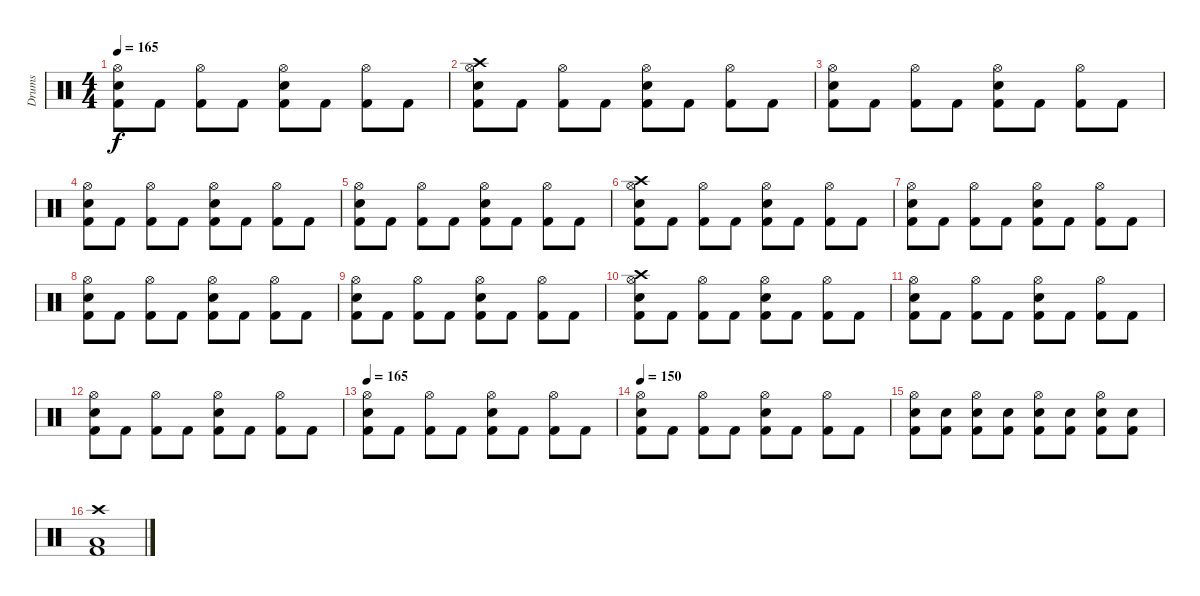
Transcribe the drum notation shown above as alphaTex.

\track ("Drums" "Drums") {instrument percussion}
\staff {score}
\articulation defaults
\ts (4 4)
\tempo 165
\clef neutral
\ks c
("Hi-Hat (open)" "Snare (hit) 2" "Kick (hit) 2").8{dy f} "Kick (hit) 2".8 ("Hi-Hat (open)" "Kick (hit) 2").8 "Kick (hit) 2".8 ("Hi-Hat (open)" "Snare (hit) 2" "Kick (hit) 2").8 "Kick (hit) 2".8 ("Hi-Hat (open)" "Kick (hit) 2").8 "Kick (hit) 2".8 |
("Crash high (hit)" "Hi-Hat (open)" "Snare (hit) 2" "Kick (hit) 2").8 "Kick (hit) 2".8 ("Hi-Hat (open)" "Kick (hit) 2").8 "Kick (hit) 2".8 ("Hi-Hat (open)" "Snare (hit) 2" "Kick (hit) 2").8 "Kick (hit) 2".8 ("Hi-Hat (open)" "Kick (hit) 2").8 "Kick (hit) 2".8 |
("Hi-Hat (open)" "Snare (hit) 2" "Kick (hit) 2").8 "Kick (hit) 2".8 ("Hi-Hat (open)" "Kick (hit) 2").8 "Kick (hit) 2".8 ("Hi-Hat (open)" "Snare (hit) 2" "Kick (hit) 2").8 "Kick (hit) 2".8 ("Hi-Hat (open)" "Kick (hit) 2").8 "Kick (hit) 2".8 |
("Hi-Hat (open)" "Snare (hit) 2" "Kick (hit) 2").8 "Kick (hit) 2".8 ("Hi-Hat (open)" "Kick (hit) 2").8 "Kick (hit) 2".8 ("Hi-Hat (open)" "Snare (hit) 2" "Kick (hit) 2").8 "Kick (hit) 2".8 ("Hi-Hat (open)" "Kick (hit) 2").8 "Kick (hit) 2".8 |
("Hi-Hat (open)" "Snare (hit) 2" "Kick (hit) 2").8 "Kick (hit) 2".8 ("Hi-Hat (open)" "Kick (hit) 2").8 "Kick (hit) 2".8 ("Hi-Hat (open)" "Snare (hit) 2" "Kick (hit) 2").8 "Kick (hit) 2".8 ("Hi-Hat (open)" "Kick (hit) 2").8 "Kick (hit) 2".8 |
("Crash high (hit)" "Hi-Hat (open)" "Snare (hit) 2" "Kick (hit) 2").8 "Kick (hit) 2".8 ("Hi-Hat (open)" "Kick (hit) 2").8 "Kick (hit) 2".8 ("Hi-Hat (open)" "Snare (hit) 2" "Kick (hit) 2").8 "Kick (hit) 2".8 ("Hi-Hat (open)" "Kick (hit) 2").8 "Kick (hit) 2".8 |
("Hi-Hat (open)" "Snare (hit) 2" "Kick (hit) 2").8 "Kick (hit) 2".8 ("Hi-Hat (open)" "Kick (hit) 2").8 "Kick (hit) 2".8 ("Hi-Hat (open)" "Snare (hit) 2" "Kick (hit) 2").8 "Kick (hit) 2".8 ("Hi-Hat (open)" "Kick (hit) 2").8 "Kick (hit) 2".8 |
("Hi-Hat (open)" "Snare (hit) 2" "Kick (hit) 2").8 "Kick (hit) 2".8 ("Hi-Hat (open)" "Kick (hit) 2").8 "Kick (hit) 2".8 ("Hi-Hat (open)" "Snare (hit) 2" "Kick (hit) 2").8 "Kick (hit) 2".8 ("Hi-Hat (open)" "Kick (hit) 2").8 "Kick (hit) 2".8 |
("Hi-Hat (open)" "Snare (hit) 2" "Kick (hit) 2").8 "Kick (hit) 2".8 ("Hi-Hat (open)" "Kick (hit) 2").8 "Kick (hit) 2".8 ("Hi-Hat (open)" "Snare (hit) 2" "Kick (hit) 2").8 "Kick (hit) 2".8 ("Hi-Hat (open)" "Kick (hit) 2").8 "Kick (hit) 2".8 |
("Crash high (hit)" "Hi-Hat (open)" "Snare (hit) 2" "Kick (hit) 2").8 "Kick (hit) 2".8 ("Hi-Hat (open)" "Kick (hit) 2").8 "Kick (hit) 2".8 ("Hi-Hat (open)" "Snare (hit) 2" "Kick (hit) 2").8 "Kick (hit) 2".8 ("Hi-Hat (open)" "Kick (hit) 2").8 "Kick (hit) 2".8 |
("Hi-Hat (open)" "Snare (hit) 2" "Kick (hit) 2").8 "Kick (hit) 2".8 ("Hi-Hat (open)" "Kick (hit) 2").8 "Kick (hit) 2".8 ("Hi-Hat (open)" "Snare (hit) 2" "Kick (hit) 2").8 "Kick (hit) 2".8 ("Hi-Hat (open)" "Kick (hit) 2").8 "Kick (hit) 2".8 |
("Hi-Hat (open)" "Snare (hit) 2" "Kick (hit) 2").8 "Kick (hit) 2".8 ("Hi-Hat (open)" "Kick (hit) 2").8 "Kick (hit) 2".8 ("Hi-Hat (open)" "Snare (hit) 2" "Kick (hit) 2").8 "Kick (hit) 2".8 ("Hi-Hat (open)" "Kick (hit) 2").8 "Kick (hit) 2".8 |
\tempo 165
("Hi-Hat (open)" "Snare (hit) 2" "Kick (hit) 2").8 "Kick (hit) 2".8 ("Hi-Hat (open)" "Kick (hit) 2").8 "Kick (hit) 2".8 ("Hi-Hat (open)" "Snare (hit) 2" "Kick (hit) 2").8 "Kick (hit) 2".8 ("Hi-Hat (open)" "Kick (hit) 2").8 "Kick (hit) 2".8 |
\tempo 150
("Hi-Hat (open)" "Snare (hit) 2" "Kick (hit) 2").8 "Kick (hit) 2".8 ("Hi-Hat (open)" "Kick (hit) 2").8 "Kick (hit) 2".8 ("Hi-Hat (open)" "Snare (hit) 2" "Kick (hit) 2").8 "Kick (hit) 2".8 ("Hi-Hat (open)" "Kick (hit) 2").8 "Kick (hit) 2".8 |
("Hi-Hat (open)" "Snare (hit) 2" "Kick (hit) 2").8 ("Snare (hit) 2" "Kick (hit) 2").8 ("Hi-Hat (open)" "Snare (hit) 2" "Kick (hit) 2").8 ("Snare (hit) 2" "Kick (hit) 2").8 ("Hi-Hat (open)" "Snare (hit) 2" "Kick (hit) 2").8 ("Snare (hit) 2" "Kick (hit) 2").8 ("Hi-Hat (open)" "Snare (hit) 2" "Kick (hit) 2").8 ("Snare (hit) 2" "Kick (hit) 2").8 |
("Crash high (hit)" "Low Floor Tom (hit)" "Kick (hit) 2").1
